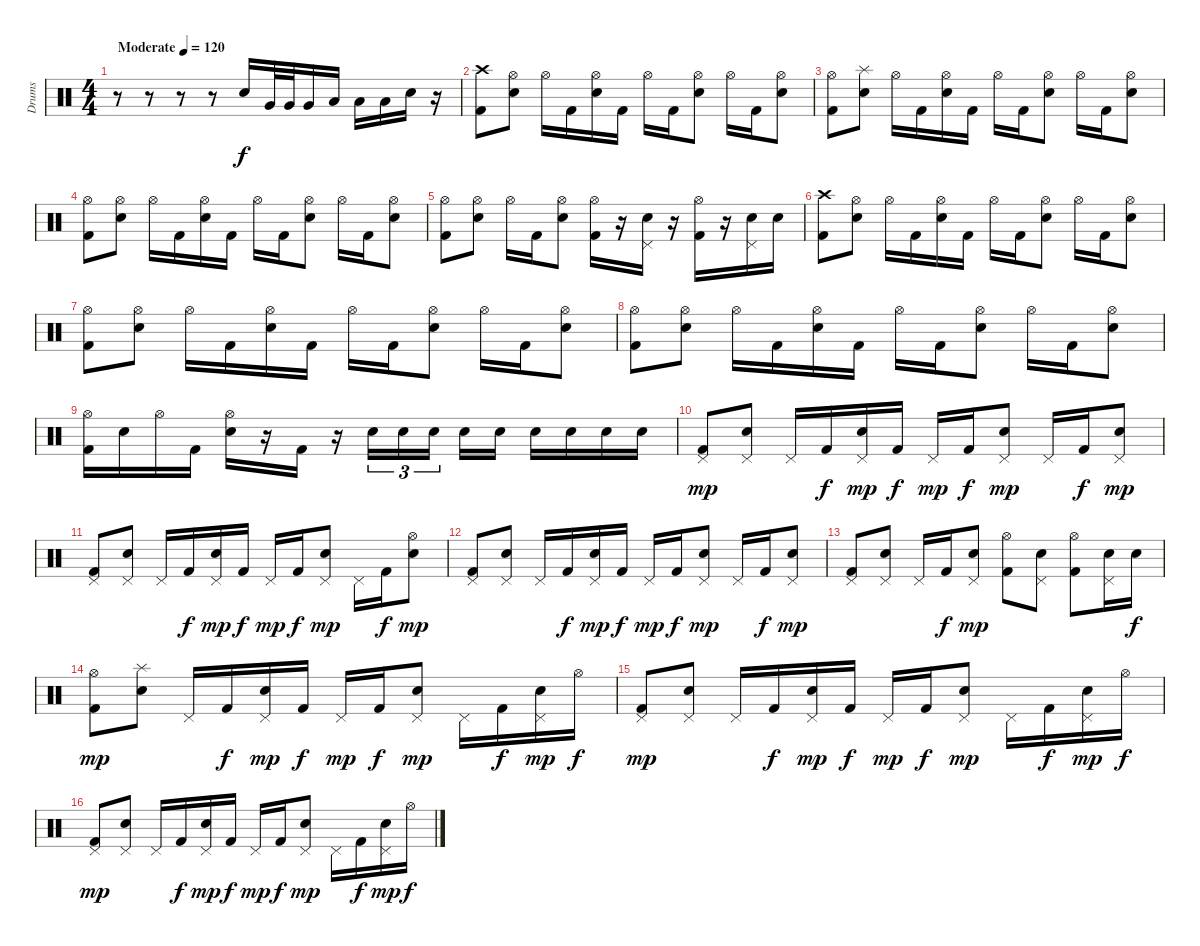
\track ("Drums" "Drums") {instrument percussion}
\staff {score}
\articulation defaults
\ts (4 4)
\tempo (120 "Moderate")
\clef neutral
\ks c
r.8{dy f} r.8 r.8 r.8 "Electric Snare (hit)".16 "Very Low Tom (hit)".32 "Very Low Tom (hit)".32 "Very Low Tom (hit)".16 "Low Floor Tom (hit)".16 "Low Floor Tom (hit)".16 "Low Floor Tom (hit)".16 "Electric Snare (hit)".16 r.16 |
("Crash high (hit)" "Kick (hit) 2").8 ("Hi-Hat (open)" "Electric Snare (hit)").8 "Hi-Hat (open)".16 "Kick (hit) 2".16 ("Hi-Hat (open)" "Electric Snare (hit)").16 "Kick (hit) 2".16 "Hi-Hat (open)".16 "Kick (hit) 2".16 ("Hi-Hat (open)" "Electric Snare (hit)").8 "Hi-Hat (open)".16 "Kick (hit) 2".16 ("Hi-Hat (open)" "Electric Snare (hit)").8 |
("Hi-Hat (open)" "Kick (hit) 2").8 ("Splash (hit)" "Electric Snare (hit)").8 "Hi-Hat (open)".16 "Kick (hit) 2".16 ("Hi-Hat (open)" "Electric Snare (hit)").16 "Kick (hit) 2".16 "Hi-Hat (open)".16 "Kick (hit) 2".16 ("Hi-Hat (open)" "Electric Snare (hit)").8 "Hi-Hat (open)".16 "Kick (hit) 2".16 ("Hi-Hat (open)" "Electric Snare (hit)").8 |
("Hi-Hat (open)" "Kick (hit) 2").8 ("Hi-Hat (open)" "Electric Snare (hit)").8 "Hi-Hat (open)".16 "Kick (hit) 2".16 ("Hi-Hat (open)" "Electric Snare (hit)").16 "Kick (hit) 2".16 "Hi-Hat (open)".16 "Kick (hit) 2".16 ("Hi-Hat (open)" "Electric Snare (hit)").8 "Hi-Hat (open)".16 "Kick (hit) 2".16 ("Hi-Hat (open)" "Electric Snare (hit)").8 |
("Hi-Hat (open)" "Kick (hit) 2").8 ("Hi-Hat (open)" "Electric Snare (hit)").8 "Hi-Hat (open)".16 "Kick (hit) 2".16 ("Hi-Hat (open)" "Electric Snare (hit)").8 ("Hi-Hat (open)" "Kick (hit) 2").16 r.16 ("Pedal Hi-Hat (hit)" "Electric Snare (hit)").16 r.16 ("Hi-Hat (open)" "Kick (hit) 2").16 r.16 ("Pedal Hi-Hat (hit)" "Electric Snare (hit)").16 "Electric Snare (hit)".16 |
("Crash high (hit)" "Kick (hit) 2").8 ("Hi-Hat (open)" "Electric Snare (hit)").8 "Hi-Hat (open)".16 "Kick (hit) 2".16 ("Hi-Hat (open)" "Electric Snare (hit)").16 "Kick (hit) 2".16 "Hi-Hat (open)".16 "Kick (hit) 2".16 ("Hi-Hat (open)" "Electric Snare (hit)").8 "Hi-Hat (open)".16 "Kick (hit) 2".16 ("Hi-Hat (open)" "Electric Snare (hit)").8 |
("Hi-Hat (open)" "Kick (hit) 2").8 ("Hi-Hat (open)" "Electric Snare (hit)").8 "Hi-Hat (open)".16 "Kick (hit) 2".16 ("Hi-Hat (open)" "Electric Snare (hit)").16 "Kick (hit) 2".16 "Hi-Hat (open)".16 "Kick (hit) 2".16 ("Hi-Hat (open)" "Electric Snare (hit)").8 "Hi-Hat (open)".16 "Kick (hit) 2".16 ("Hi-Hat (open)" "Electric Snare (hit)").8 |
("Hi-Hat (open)" "Kick (hit) 2").8 ("Hi-Hat (open)" "Electric Snare (hit)").8 "Hi-Hat (open)".16 "Kick (hit) 2".16 ("Hi-Hat (open)" "Electric Snare (hit)").16 "Kick (hit) 2".16 "Hi-Hat (open)".16 "Kick (hit) 2".16 ("Hi-Hat (open)" "Electric Snare (hit)").8 "Hi-Hat (open)".16 "Kick (hit) 2".16 ("Hi-Hat (open)" "Electric Snare (hit)").8 |
("Hi-Hat (open)" "Kick (hit) 2").16 "Electric Snare (hit)".16 "Hi-Hat (open)".16 "Kick (hit) 2".16 ("Hi-Hat (open)" "Electric Snare (hit)").16 r.16 "Kick (hit) 2".16 r.16 "Electric Snare (hit)".16{tu (3 2)} "Electric Snare (hit)".16{tu (3 2)} "Electric Snare (hit)".16{tu (3 2) beam splitsecondary} "Electric Snare (hit)".16 "Electric Snare (hit)".16 "Electric Snare (hit)".16 "Electric Snare (hit)".16 "Electric Snare (hit)".16 "Electric Snare (hit)".16 |
("Pedal Hi-Hat (hit)" "Kick (hit) 2").8{dy mp} ("Pedal Hi-Hat (hit)" "Electric Snare (hit)").8 "Pedal Hi-Hat (hit)".16 "Kick (hit) 2".16{dy f} ("Pedal Hi-Hat (hit)" "Electric Snare (hit)").16{dy mp} "Kick (hit) 2".16{dy f} "Pedal Hi-Hat (hit)".16{dy mp} "Kick (hit) 2".16{dy f} ("Pedal Hi-Hat (hit)" "Electric Snare (hit)").8{dy mp} "Pedal Hi-Hat (hit)".16 "Kick (hit) 2".16{dy f} ("Pedal Hi-Hat (hit)" "Electric Snare (hit)").8{dy mp} |
("Pedal Hi-Hat (hit)" "Kick (hit) 2").8 ("Pedal Hi-Hat (hit)" "Electric Snare (hit)").8 "Pedal Hi-Hat (hit)".16 "Kick (hit) 2".16{dy f} ("Pedal Hi-Hat (hit)" "Electric Snare (hit)").16{dy mp} "Kick (hit) 2".16{dy f} "Pedal Hi-Hat (hit)".16{dy mp} "Kick (hit) 2".16{dy f} ("Pedal Hi-Hat (hit)" "Electric Snare (hit)").8{dy mp} "Pedal Hi-Hat (hit)".16 "Kick (hit) 2".16{dy f} ("Hi-Hat (open)" "Electric Snare (hit)").8{dy mp} |
("Pedal Hi-Hat (hit)" "Kick (hit) 2").8 ("Pedal Hi-Hat (hit)" "Electric Snare (hit)").8 "Pedal Hi-Hat (hit)".16 "Kick (hit) 2".16{dy f} ("Pedal Hi-Hat (hit)" "Electric Snare (hit)").16{dy mp} "Kick (hit) 2".16{dy f} "Pedal Hi-Hat (hit)".16{dy mp} "Kick (hit) 2".16{dy f} ("Pedal Hi-Hat (hit)" "Electric Snare (hit)").8{dy mp} "Pedal Hi-Hat (hit)".16 "Kick (hit) 2".16{dy f} ("Pedal Hi-Hat (hit)" "Electric Snare (hit)").8{dy mp} |
("Pedal Hi-Hat (hit)" "Kick (hit) 2").8 ("Pedal Hi-Hat (hit)" "Electric Snare (hit)").8 "Pedal Hi-Hat (hit)".16 "Kick (hit) 2".16{dy f} ("Pedal Hi-Hat (hit)" "Electric Snare (hit)").8{dy mp} ("Hi-Hat (open)" "Kick (hit) 2").8 ("Pedal Hi-Hat (hit)" "Electric Snare (hit)").8 ("Hi-Hat (open)" "Kick (hit) 2").8 ("Pedal Hi-Hat (hit)" "Electric Snare (hit)").16 "Electric Snare (hit)".16{dy f} |
("Hi-Hat (open)" "Kick (hit) 2").8{dy mp} ("Splash (hit)" "Electric Snare (hit)").8 "Pedal Hi-Hat (hit)".16 "Kick (hit) 2".16{dy f} ("Pedal Hi-Hat (hit)" "Electric Snare (hit)").16{dy mp} "Kick (hit) 2".16{dy f} "Pedal Hi-Hat (hit)".16{dy mp} "Kick (hit) 2".16{dy f} ("Pedal Hi-Hat (hit)" "Electric Snare (hit)").8{dy mp} "Pedal Hi-Hat (hit)".16 "Kick (hit) 2".16{dy f} ("Pedal Hi-Hat (hit)" "Electric Snare (hit)").16{dy mp} "Hi-Hat (open)".16{dy f} |
("Pedal Hi-Hat (hit)" "Kick (hit) 2").8{dy mp} ("Pedal Hi-Hat (hit)" "Electric Snare (hit)").8 "Pedal Hi-Hat (hit)".16 "Kick (hit) 2".16{dy f} ("Pedal Hi-Hat (hit)" "Electric Snare (hit)").16{dy mp} "Kick (hit) 2".16{dy f} "Pedal Hi-Hat (hit)".16{dy mp} "Kick (hit) 2".16{dy f} ("Pedal Hi-Hat (hit)" "Electric Snare (hit)").8{dy mp} "Pedal Hi-Hat (hit)".16 "Kick (hit) 2".16{dy f} ("Pedal Hi-Hat (hit)" "Electric Snare (hit)").16{dy mp} "Hi-Hat (open)".16{dy f} |
("Pedal Hi-Hat (hit)" "Kick (hit) 2").8{dy mp} ("Pedal Hi-Hat (hit)" "Electric Snare (hit)").8 "Pedal Hi-Hat (hit)".16 "Kick (hit) 2".16{dy f} ("Pedal Hi-Hat (hit)" "Electric Snare (hit)").16{dy mp} "Kick (hit) 2".16{dy f} "Pedal Hi-Hat (hit)".16{dy mp} "Kick (hit) 2".16{dy f} ("Pedal Hi-Hat (hit)" "Electric Snare (hit)").8{dy mp} "Pedal Hi-Hat (hit)".16 "Kick (hit) 2".16{dy f} ("Pedal Hi-Hat (hit)" "Electric Snare (hit)").16{dy mp} "Hi-Hat (open)".16{dy f}
